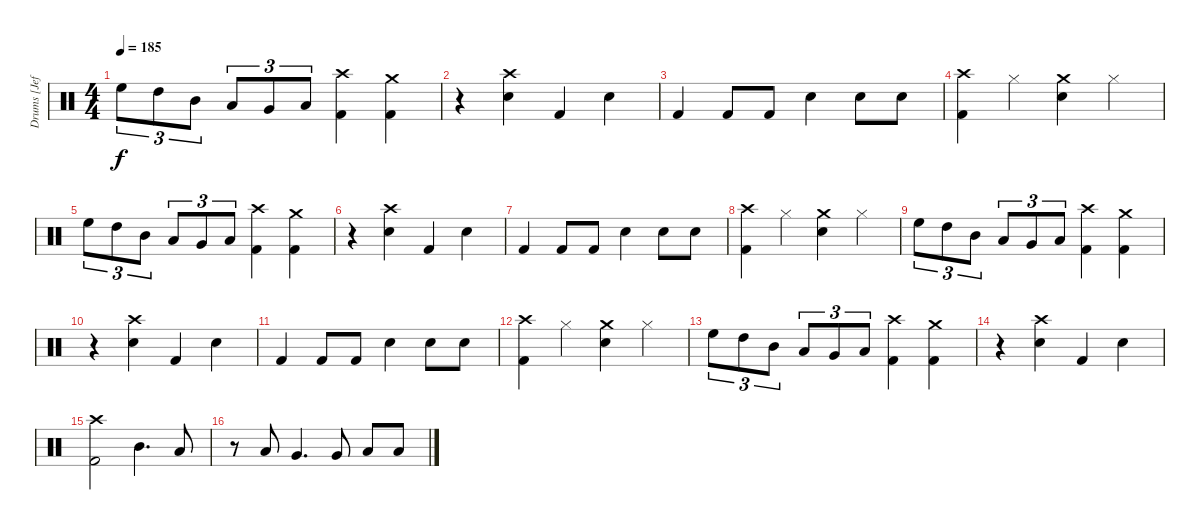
\track ("Drums [Jeff]" "Drums [Jef") {instrument percussion}
\staff {score}
\articulation defaults
\ts (4 4)
\tempo 185
\clef neutral
\ks c "High Floor Tom (hit)".8{tu (3 2) dy f} "High Tom (hit)".8{tu (3 2)} "Mid Tom (hit)".8{tu (3 2)} "Low Tom (hit)".8{tu (3 2)} "Very Low Tom (hit)".8{tu (3 2)} "Low Floor Tom (hit)".8{tu (3 2)}
("Crash high (hit)" "Kick (hit) 2").4 ("Crash medium (hit)" "Kick (hit) 2").4 |
r.4 ("Crash high (hit)" "Electric Snare (hit)").4 "Kick (hit) 2".4 "Electric Snare (hit)".4 |
"Kick (hit) 2".4 "Kick (hit) 2".8 "Kick (hit) 2".8 "Electric Snare (hit)".4 "Electric Snare (hit)".8 "Electric Snare (hit)".8 |
("Crash high (hit)" "Kick (hit) 2").4 "Hi-Hat (closed)".4 ("Crash medium (hit)" "Electric Snare (hit)").4 "Hi-Hat (closed)".4 |
"High Floor Tom (hit)".8{tu (3 2)} "High Tom (hit)".8{tu (3 2)} "Mid Tom (hit)".8{tu (3 2)} "Low Tom (hit)".8{tu (3 2)} "Very Low Tom (hit)".8{tu (3 2)} "Low Floor Tom (hit)".8{tu (3 2)} ("Crash high (hit)" "Kick (hit) 2").4 ("Crash medium (hit)" "Kick (hit) 2").4 |
r.4 ("Crash high (hit)" "Electric Snare (hit)").4 "Kick (hit) 2".4 "Electric Snare (hit)".4 |
"Kick (hit) 2".4 "Kick (hit) 2".8 "Kick (hit) 2".8 "Electric Snare (hit)".4 "Electric Snare (hit)".8 "Electric Snare (hit)".8 |
("Crash high (hit)" "Kick (hit) 2").4 "Hi-Hat (closed)".4 ("Crash medium (hit)" "Electric Snare (hit)").4 "Hi-Hat (closed)".4 |
"High Floor Tom (hit)".8{tu (3 2)} "High Tom (hit)".8{tu (3 2)} "Mid Tom (hit)".8{tu (3 2)} "Low Tom (hit)".8{tu (3 2)} "Very Low Tom (hit)".8{tu (3 2)} "Low Floor Tom (hit)".8{tu (3 2)} ("Crash high (hit)" "Kick (hit) 2").4 ("Crash medium (hit)" "Kick (hit) 2").4 |
r.4 ("Crash high (hit)" "Electric Snare (hit)").4 "Kick (hit) 2".4 "Electric Snare (hit)".4 |
"Kick (hit) 2".4 "Kick (hit) 2".8 "Kick (hit) 2".8 "Electric Snare (hit)".4 "Electric Snare (hit)".8 "Electric Snare (hit)".8 |
("Crash high (hit)" "Kick (hit) 2").4 "Hi-Hat (closed)".4 ("Crash medium (hit)" "Electric Snare (hit)").4 "Hi-Hat (closed)".4 |
"High Floor Tom (hit)".8{tu (3 2)} "High Tom (hit)".8{tu (3 2)} "Mid Tom (hit)".8{tu (3 2)} "Low Tom (hit)".8{tu (3 2)} "Very Low Tom (hit)".8{tu (3 2)} "Low Floor Tom (hit)".8{tu (3 2)} ("Crash high (hit)" "Kick (hit) 2").4 ("Crash medium (hit)" "Kick (hit) 2").4 |
r.4 ("Crash high (hit)" "Electric Snare (hit)").4 "Kick (hit) 2".4 "Electric Snare (hit)".4 |
("Crash high (hit)" "Kick (hit) 2").2 "Mid Tom (hit)".4{d} "Low Tom (hit)".8 |
r.8 "Low Tom (hit)".8 "Very Low Tom (hit)".4{d} "Very Low Tom (hit)".8 "Low Floor Tom (hit)".8 "Low Floor Tom (hit)".8
